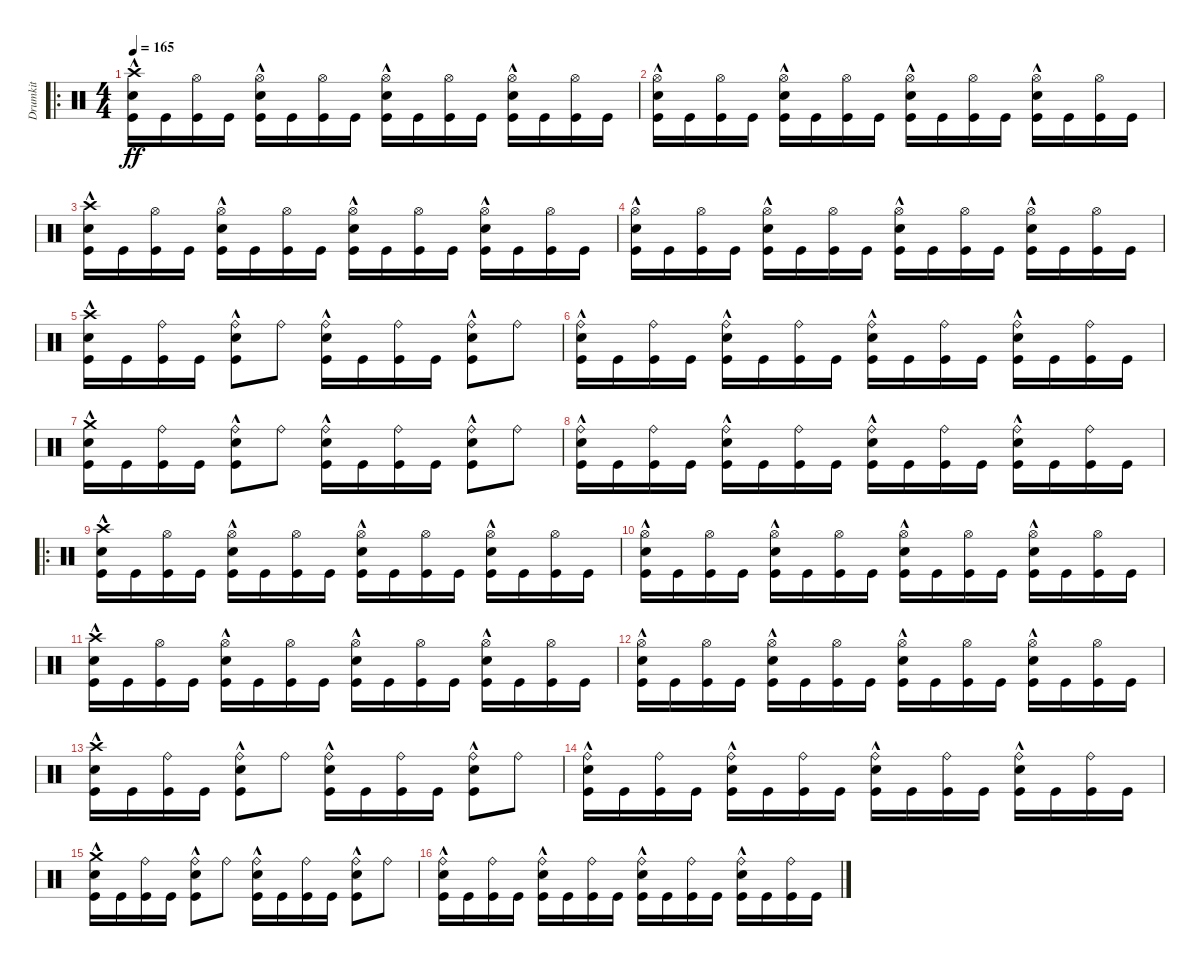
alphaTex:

\track ("Drumkit" "Drumkit") {instrument percussion}
\staff {score}
\articulation defaults
\ro
\ts (4 4)
\tempo 165
\clef neutral
\ks c
("Kick (hit)" "Crash high (hit)" "Snare (hit) 2"{hac}).16{dy ff} "Kick (hit)".16 ("Kick (hit)" "Hi-Hat (open)").16 "Kick (hit)".16 ("Kick (hit)" "Snare (hit) 2"{hac} "Hi-Hat (open)").16 "Kick (hit)".16 ("Kick (hit)" "Hi-Hat (open)").16 "Kick (hit)".16 ("Kick (hit)" "Snare (hit) 2"{hac} "Hi-Hat (open)").16 "Kick (hit)".16 ("Kick (hit)" "Hi-Hat (open)").16 "Kick (hit)".16 ("Kick (hit)" "Snare (hit) 2"{hac} "Hi-Hat (open)").16 "Kick (hit)".16 ("Kick (hit)" "Hi-Hat (open)").16 "Kick (hit)".16 |
("Kick (hit)" "Snare (hit) 2"{hac} "Hi-Hat (open)").16 "Kick (hit)".16 ("Kick (hit)" "Hi-Hat (open)").16 "Kick (hit)".16 ("Kick (hit)" "Snare (hit) 2"{hac} "Hi-Hat (open)").16 "Kick (hit)".16 ("Kick (hit)" "Hi-Hat (open)").16 "Kick (hit)".16 ("Kick (hit)" "Snare (hit) 2"{hac} "Hi-Hat (open)").16 "Kick (hit)".16 ("Kick (hit)" "Hi-Hat (open)").16 "Kick (hit)".16 ("Kick (hit)" "Snare (hit) 2"{hac} "Hi-Hat (open)").16 "Kick (hit)".16 ("Kick (hit)" "Hi-Hat (open)").16 "Kick (hit)".16 |
("Kick (hit)" "Crash high (hit)" "Snare (hit) 2"{hac}).16 "Kick (hit)".16 ("Kick (hit)" "Hi-Hat (open)").16 "Kick (hit)".16 ("Kick (hit)" "Snare (hit) 2"{hac} "Hi-Hat (open)").16 "Kick (hit)".16 ("Kick (hit)" "Hi-Hat (open)").16 "Kick (hit)".16 ("Kick (hit)" "Snare (hit) 2"{hac} "Hi-Hat (open)").16 "Kick (hit)".16 ("Kick (hit)" "Hi-Hat (open)").16 "Kick (hit)".16 ("Kick (hit)" "Snare (hit) 2"{hac} "Hi-Hat (open)").16 "Kick (hit)".16 ("Kick (hit)" "Hi-Hat (open)").16 "Kick (hit)".16 |
("Kick (hit)" "Snare (hit) 2"{hac} "Hi-Hat (open)").16 "Kick (hit)".16 ("Kick (hit)" "Hi-Hat (open)").16 "Kick (hit)".16 ("Kick (hit)" "Snare (hit) 2"{hac} "Hi-Hat (open)").16 "Kick (hit)".16 ("Kick (hit)" "Hi-Hat (open)").16 "Kick (hit)".16 ("Kick (hit)" "Snare (hit) 2"{hac} "Hi-Hat (open)").16 "Kick (hit)".16 ("Kick (hit)" "Hi-Hat (open)").16 "Kick (hit)".16 ("Kick (hit)" "Snare (hit) 2"{hac} "Hi-Hat (open)").16 "Kick (hit)".16 ("Kick (hit)" "Hi-Hat (open)").16 "Kick (hit)".16 |
("Kick (hit)" "Crash high (hit)" "Snare (hit) 2"{hac}).16 "Kick (hit)".16 ("Kick (hit)" "Ride (bell)").16 "Kick (hit)".16 ("Kick (hit)" "Snare (hit) 2"{hac} "Ride (bell)").8 "Ride (bell)".8 ("Kick (hit)" "Snare (hit) 2"{hac} "Ride (bell)").16 "Kick (hit)".16 ("Kick (hit)" "Ride (bell)").16 "Kick (hit)".16 ("Snare (hit) 2"{hac} "Ride (bell)" "Kick (hit)").8 "Ride (bell)".8 |
("Kick (hit)" "Snare (hit) 2"{hac} "Ride (bell)").16 "Kick (hit)".16 ("Kick (hit)" "Ride (bell)").16 "Kick (hit)".16 ("Kick (hit)" "Snare (hit) 2"{hac} "Ride (bell)").16 "Kick (hit)".16 ("Kick (hit)" "Ride (bell)").16 "Kick (hit)".16 ("Kick (hit)" "Snare (hit) 2"{hac} "Ride (bell)").16 "Kick (hit)".16 ("Kick (hit)" "Ride (bell)").16 "Kick (hit)".16 ("Kick (hit)" "Snare (hit) 2"{hac} "Ride (bell)").16 "Kick (hit)".16 ("Kick (hit)" "Ride (bell)").16 "Kick (hit)".16 |
("Kick (hit)" "Snare (hit) 2"{hac} "Crash medium (hit)").16 "Kick (hit)".16 ("Kick (hit)" "Ride (bell)").16 "Kick (hit)".16 ("Snare (hit) 2"{hac} "Ride (bell)" "Kick (hit)").8 "Ride (bell)".8 ("Kick (hit)" "Snare (hit) 2"{hac} "Ride (bell)").16 "Kick (hit)".16 ("Kick (hit)" "Ride (bell)").16 "Kick (hit)".16 ("Kick (hit)" "Snare (hit) 2"{hac} "Ride (bell)").8 "Ride (bell)".8 |
("Kick (hit)" "Snare (hit) 2"{hac} "Ride (bell)").16 "Kick (hit)".16 ("Kick (hit)" "Ride (bell)").16 "Kick (hit)".16 ("Kick (hit)" "Snare (hit) 2"{hac} "Ride (bell)").16 "Kick (hit)".16 ("Kick (hit)" "Ride (bell)").16 "Kick (hit)".16 ("Kick (hit)" "Snare (hit) 2"{hac} "Ride (bell)").16 "Kick (hit)".16 ("Kick (hit)" "Ride (bell)").16 "Kick (hit)".16 ("Kick (hit)" "Snare (hit) 2"{hac} "Ride (bell)").16 "Kick (hit)".16 ("Kick (hit)" "Ride (bell)").16 "Kick (hit)".16 |
\ro
("Kick (hit)" "Crash high (hit)" "Snare (hit) 2"{hac}).16 "Kick (hit)".16 ("Kick (hit)" "Hi-Hat (open)").16 "Kick (hit)".16 ("Kick (hit)" "Snare (hit) 2"{hac} "Hi-Hat (open)").16 "Kick (hit)".16 ("Kick (hit)" "Hi-Hat (open)").16 "Kick (hit)".16 ("Kick (hit)" "Snare (hit) 2"{hac} "Hi-Hat (open)").16 "Kick (hit)".16 ("Kick (hit)" "Hi-Hat (open)").16 "Kick (hit)".16 ("Kick (hit)" "Snare (hit) 2"{hac} "Hi-Hat (open)").16 "Kick (hit)".16 ("Kick (hit)" "Hi-Hat (open)").16 "Kick (hit)".16 |
("Kick (hit)" "Snare (hit) 2"{hac} "Hi-Hat (open)").16 "Kick (hit)".16 ("Kick (hit)" "Hi-Hat (open)").16 "Kick (hit)".16 ("Kick (hit)" "Snare (hit) 2"{hac} "Hi-Hat (open)").16 "Kick (hit)".16 ("Kick (hit)" "Hi-Hat (open)").16 "Kick (hit)".16 ("Kick (hit)" "Snare (hit) 2"{hac} "Hi-Hat (open)").16 "Kick (hit)".16 ("Kick (hit)" "Hi-Hat (open)").16 "Kick (hit)".16 ("Kick (hit)" "Snare (hit) 2"{hac} "Hi-Hat (open)").16 "Kick (hit)".16 ("Kick (hit)" "Hi-Hat (open)").16 "Kick (hit)".16 |
("Kick (hit)" "Crash high (hit)" "Snare (hit) 2"{hac}).16 "Kick (hit)".16 ("Kick (hit)" "Hi-Hat (open)").16 "Kick (hit)".16 ("Kick (hit)" "Snare (hit) 2"{hac} "Hi-Hat (open)").16 "Kick (hit)".16 ("Kick (hit)" "Hi-Hat (open)").16 "Kick (hit)".16 ("Kick (hit)" "Snare (hit) 2"{hac} "Hi-Hat (open)").16 "Kick (hit)".16 ("Kick (hit)" "Hi-Hat (open)").16 "Kick (hit)".16 ("Kick (hit)" "Snare (hit) 2"{hac} "Hi-Hat (open)").16 "Kick (hit)".16 ("Kick (hit)" "Hi-Hat (open)").16 "Kick (hit)".16 |
("Kick (hit)" "Snare (hit) 2"{hac} "Hi-Hat (open)").16 "Kick (hit)".16 ("Kick (hit)" "Hi-Hat (open)").16 "Kick (hit)".16 ("Kick (hit)" "Snare (hit) 2"{hac} "Hi-Hat (open)").16 "Kick (hit)".16 ("Kick (hit)" "Hi-Hat (open)").16 "Kick (hit)".16 ("Kick (hit)" "Snare (hit) 2"{hac} "Hi-Hat (open)").16 "Kick (hit)".16 ("Kick (hit)" "Hi-Hat (open)").16 "Kick (hit)".16 ("Kick (hit)" "Snare (hit) 2"{hac} "Hi-Hat (open)").16 "Kick (hit)".16 ("Kick (hit)" "Hi-Hat (open)").16 "Kick (hit)".16 |
("Kick (hit)" "Crash high (hit)" "Snare (hit) 2"{hac}).16 "Kick (hit)".16 ("Kick (hit)" "Ride (bell)").16 "Kick (hit)".16 ("Kick (hit)" "Snare (hit) 2"{hac} "Ride (bell)").8 "Ride (bell)".8 ("Kick (hit)" "Snare (hit) 2"{hac} "Ride (bell)").16 "Kick (hit)".16 ("Kick (hit)" "Ride (bell)").16 "Kick (hit)".16 ("Snare (hit) 2"{hac} "Ride (bell)" "Kick (hit)").8 "Ride (bell)".8 |
("Kick (hit)" "Snare (hit) 2"{hac} "Ride (bell)").16 "Kick (hit)".16 ("Kick (hit)" "Ride (bell)").16 "Kick (hit)".16 ("Kick (hit)" "Snare (hit) 2"{hac} "Ride (bell)").16 "Kick (hit)".16 ("Kick (hit)" "Ride (bell)").16 "Kick (hit)".16 ("Kick (hit)" "Snare (hit) 2"{hac} "Ride (bell)").16 "Kick (hit)".16 ("Kick (hit)" "Ride (bell)").16 "Kick (hit)".16 ("Kick (hit)" "Snare (hit) 2"{hac} "Ride (bell)").16 "Kick (hit)".16 ("Kick (hit)" "Ride (bell)").16 "Kick (hit)".16 |
("Kick (hit)" "Snare (hit) 2"{hac} "Crash medium (hit)").16 "Kick (hit)".16 ("Kick (hit)" "Ride (bell)").16 "Kick (hit)".16 ("Snare (hit) 2"{hac} "Ride (bell)" "Kick (hit)").8 "Ride (bell)".8 ("Kick (hit)" "Snare (hit) 2"{hac} "Ride (bell)").16 "Kick (hit)".16 ("Kick (hit)" "Ride (bell)").16 "Kick (hit)".16 ("Kick (hit)" "Snare (hit) 2"{hac} "Ride (bell)").8 "Ride (bell)".8 |
("Kick (hit)" "Snare (hit) 2"{hac} "Ride (bell)").16 "Kick (hit)".16 ("Kick (hit)" "Ride (bell)").16 "Kick (hit)".16 ("Kick (hit)" "Snare (hit) 2"{hac} "Ride (bell)").16 "Kick (hit)".16 ("Kick (hit)" "Ride (bell)").16 "Kick (hit)".16 ("Kick (hit)" "Snare (hit) 2"{hac} "Ride (bell)").16 "Kick (hit)".16 ("Kick (hit)" "Ride (bell)").16 "Kick (hit)".16 ("Kick (hit)" "Snare (hit) 2"{hac} "Ride (bell)").16 "Kick (hit)".16 ("Kick (hit)" "Ride (bell)").16 "Kick (hit)".16
